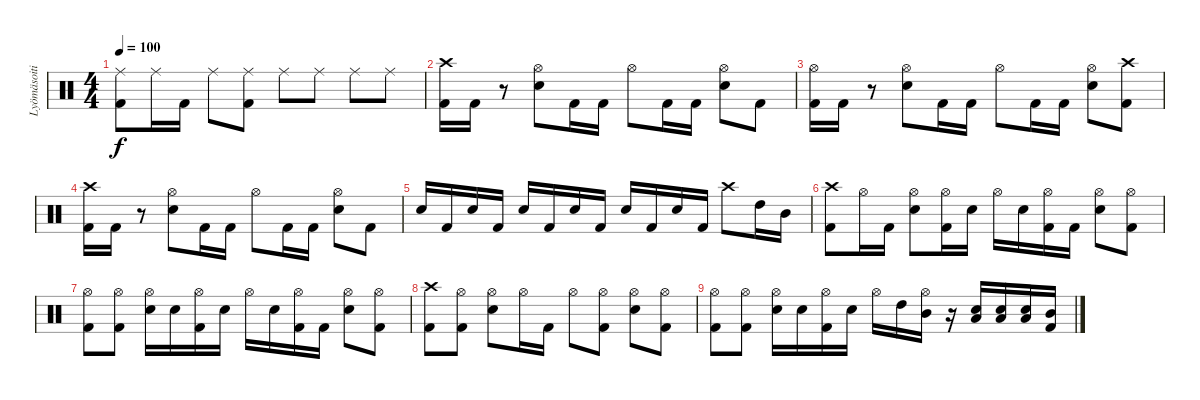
\track ("Lyömäsoitin" "Lyömäsoiti") {instrument percussion}
\staff {score}
\articulation defaults
\ts (4 4)
\tempo 100
\clef neutral
\ks c
("Ride (middle)" "Kick (hit) 2").8{dy f} "Ride (middle)".16 "Kick (hit) 2".16 "Ride (middle)".8 ("Ride (middle)" "Kick (hit) 2").8 "Ride (middle)".8 "Ride (middle)".8 "Ride (middle)".8 "Ride (middle)".8 |
("Crash high (hit)" "Kick (hit) 2").16 "Kick (hit) 2".16 r.8 ("Hi-Hat (open)" "Snare (hit) 2").8 "Kick (hit) 2".16 "Kick (hit) 2".16 "Hi-Hat (open)".8 "Kick (hit) 2".16 "Kick (hit) 2".16 ("Hi-Hat (open)" "Snare (hit) 2").8 "Kick (hit) 2".8 |
("Hi-Hat (open)" "Kick (hit) 2").16 "Kick (hit) 2".16 r.8 ("Hi-Hat (open)" "Snare (hit) 2").8 "Kick (hit) 2".16 "Kick (hit) 2".16 "Hi-Hat (open)".8 "Kick (hit) 2".16 "Kick (hit) 2".16 ("Hi-Hat (open)" "Snare (hit) 2").8 ("Crash high (hit)" "Kick (hit) 2").8 |
("Crash high (hit)" "Kick (hit) 2").16 "Kick (hit) 2".16 r.8 ("Hi-Hat (open)" "Snare (hit) 2").8 "Kick (hit) 2".16 "Kick (hit) 2".16 "Hi-Hat (open)".8 "Kick (hit) 2".16 "Kick (hit) 2".16 ("Hi-Hat (open)" "Snare (hit) 2").8 "Kick (hit) 2".8 |
"Snare (hit) 2".16 "Kick (hit) 2".16 "Snare (hit) 2".16 "Kick (hit) 2".16 "Snare (hit) 2".16 "Kick (hit) 2".16 "Snare (hit) 2".16 "Kick (hit) 2".16 "Snare (hit) 2".16 "Kick (hit) 2".16 "Snare (hit) 2".16 "Kick (hit) 2".16 "Crash high (hit)".8 "High Tom (hit)".16 "Mid Tom (hit)".16 |
("Crash high (hit)" "Kick (hit) 2").8 "Hi-Hat (open)".16 "Kick (hit) 2".16 ("Hi-Hat (open)" "Snare (hit) 2").8 ("Hi-Hat (open)" "Kick (hit) 2").16 "Snare (hit) 2".16 "Hi-Hat (open)".16 "Snare (hit) 2".16 ("Hi-Hat (open)" "Kick (hit) 2").16 "Kick (hit) 2".16 ("Hi-Hat (open)" "Snare (hit) 2").8 ("Hi-Hat (open)" "Kick (hit) 2").8 |
("Hi-Hat (open)" "Kick (hit) 2").8 ("Hi-Hat (open)" "Kick (hit) 2").8 ("Hi-Hat (open)" "Snare (hit) 2").16 "Snare (hit) 2".16 ("Hi-Hat (open)" "Kick (hit) 2").16 "Snare (hit) 2".16 "Hi-Hat (open)".16 "Snare (hit) 2".16 ("Hi-Hat (open)" "Kick (hit) 2").16 "Kick (hit) 2".16 ("Hi-Hat (open)" "Snare (hit) 2").8 ("Hi-Hat (open)" "Kick (hit) 2").8 |
("Crash high (hit)" "Kick (hit) 2").8 ("Hi-Hat (open)" "Kick (hit) 2").8 ("Hi-Hat (open)" "Snare (hit) 2").8 "Hi-Hat (open)".16 "Kick (hit) 2".16 "Hi-Hat (open)".8 ("Hi-Hat (open)" "Kick (hit) 2").8 ("Hi-Hat (open)" "Snare (hit) 2").8 ("Hi-Hat (open)" "Kick (hit) 2").8 |
("Hi-Hat (open)" "Kick (hit) 2").8 ("Hi-Hat (open)" "Kick (hit) 2").8 ("Hi-Hat (open)" "Snare (hit) 2").16 "Snare (hit) 2".16 ("Hi-Hat (open)" "Kick (hit) 2").16 "Snare (hit) 2".16 "Hi-Hat (open)".16 "High Tom (hit)".16 ("Hi-Hat (open)" "Mid Tom (hit)").16 r.16 ("Low Tom (hit)" "Snare (hit) 2").16 ("Low Tom (hit)" "Snare (hit) 2").16 ("Low Tom (hit)" "Snare (hit) 2").16 ("Mid Tom (hit)" "Kick (hit) 2").16
